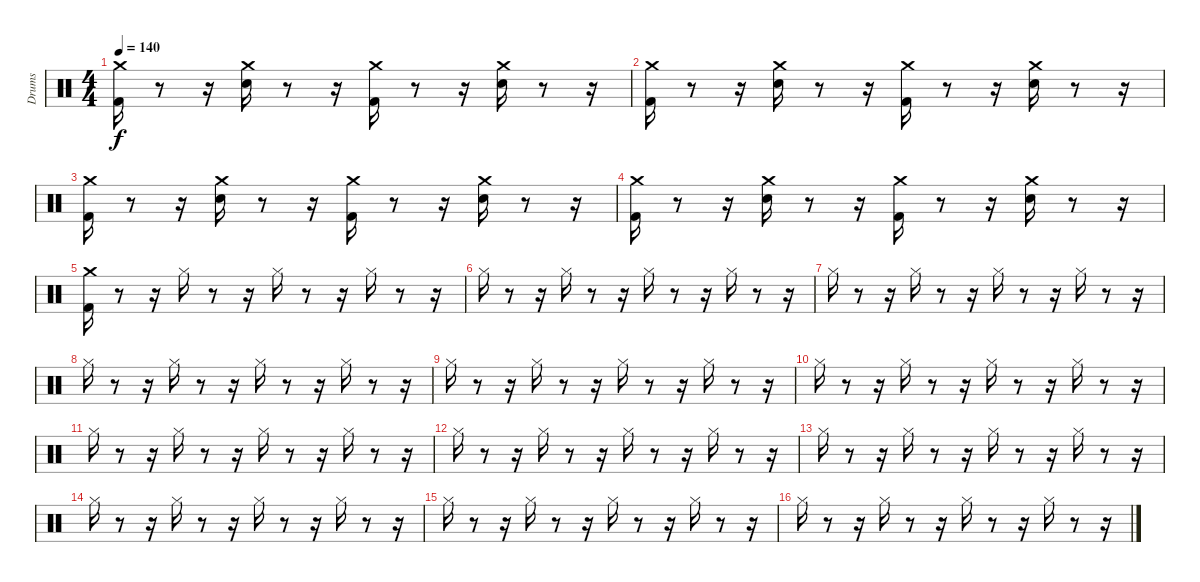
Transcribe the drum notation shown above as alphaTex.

\track ("Drums               " "Drums     ") {instrument percussion}
\staff {score}
\articulation defaults
\ts (4 4)
\tempo 140
\clef neutral
\ks c
("Kick (hit) 2" "Crash medium (hit)").16{dy f} r.8 r.16 ("Electric Snare (hit)" "Crash medium (hit)").16 r.8 r.16 ("Kick (hit) 2" "Crash medium (hit)").16 r.8 r.16 ("Electric Snare (hit)" "Crash medium (hit)").16 r.8 r.16 |
("Kick (hit) 2" "Crash medium (hit)").16 r.8 r.16 ("Electric Snare (hit)" "Crash medium (hit)").16 r.8 r.16 ("Kick (hit) 2" "Crash medium (hit)").16 r.8 r.16 ("Electric Snare (hit)" "Crash medium (hit)").16 r.8 r.16 |
("Kick (hit) 2" "Crash medium (hit)").16 r.8 r.16 ("Electric Snare (hit)" "Crash medium (hit)").16 r.8 r.16 ("Kick (hit) 2" "Crash medium (hit)").16 r.8 r.16 ("Electric Snare (hit)" "Crash medium (hit)").16 r.8 r.16 |
("Kick (hit) 2" "Crash medium (hit)").16 r.8 r.16 ("Electric Snare (hit)" "Crash medium (hit)").16 r.8 r.16 ("Kick (hit) 2" "Crash medium (hit)").16 r.8 r.16 ("Electric Snare (hit)" "Crash medium (hit)").16 r.8 r.16 |
("Kick (hit) 2" "Crash medium (hit)").16 r.8 r.16 "Hi-Hat (closed)".16 r.8 r.16 "Hi-Hat (closed)".16 r.8 r.16 "Hi-Hat (closed)".16 r.8 r.16 |
"Hi-Hat (closed)".16 r.8 r.16 "Hi-Hat (closed)".16 r.8 r.16 "Hi-Hat (closed)".16 r.8 r.16 "Hi-Hat (closed)".16 r.8 r.16 |
"Hi-Hat (closed)".16 r.8 r.16 "Hi-Hat (closed)".16 r.8 r.16 "Hi-Hat (closed)".16 r.8 r.16 "Hi-Hat (closed)".16 r.8 r.16 |
"Hi-Hat (closed)".16 r.8 r.16 "Hi-Hat (closed)".16 r.8 r.16 "Hi-Hat (closed)".16 r.8 r.16 "Hi-Hat (closed)".16 r.8 r.16 |
"Hi-Hat (closed)".16 r.8 r.16 "Hi-Hat (closed)".16 r.8 r.16 "Hi-Hat (closed)".16 r.8 r.16 "Hi-Hat (closed)".16 r.8 r.16 |
"Hi-Hat (closed)".16 r.8 r.16 "Hi-Hat (closed)".16 r.8 r.16 "Hi-Hat (closed)".16 r.8 r.16 "Hi-Hat (closed)".16 r.8 r.16 |
"Hi-Hat (closed)".16 r.8 r.16 "Hi-Hat (closed)".16 r.8 r.16 "Hi-Hat (closed)".16 r.8 r.16 "Hi-Hat (closed)".16 r.8 r.16 |
"Hi-Hat (closed)".16 r.8 r.16 "Hi-Hat (closed)".16 r.8 r.16 "Hi-Hat (closed)".16 r.8 r.16 "Hi-Hat (closed)".16 r.8 r.16 |
"Hi-Hat (closed)".16 r.8 r.16 "Hi-Hat (closed)".16 r.8 r.16 "Hi-Hat (closed)".16 r.8 r.16 "Hi-Hat (closed)".16 r.8 r.16 |
"Hi-Hat (closed)".16 r.8 r.16 "Hi-Hat (closed)".16 r.8 r.16 "Hi-Hat (closed)".16 r.8 r.16 "Hi-Hat (closed)".16 r.8 r.16 |
"Hi-Hat (closed)".16 r.8 r.16 "Hi-Hat (closed)".16 r.8 r.16 "Hi-Hat (closed)".16 r.8 r.16 "Hi-Hat (closed)".16 r.8 r.16 |
"Hi-Hat (closed)".16 r.8 r.16 "Hi-Hat (closed)".16 r.8 r.16 "Hi-Hat (closed)".16 r.8 r.16 "Hi-Hat (closed)".16 r.8 r.16
